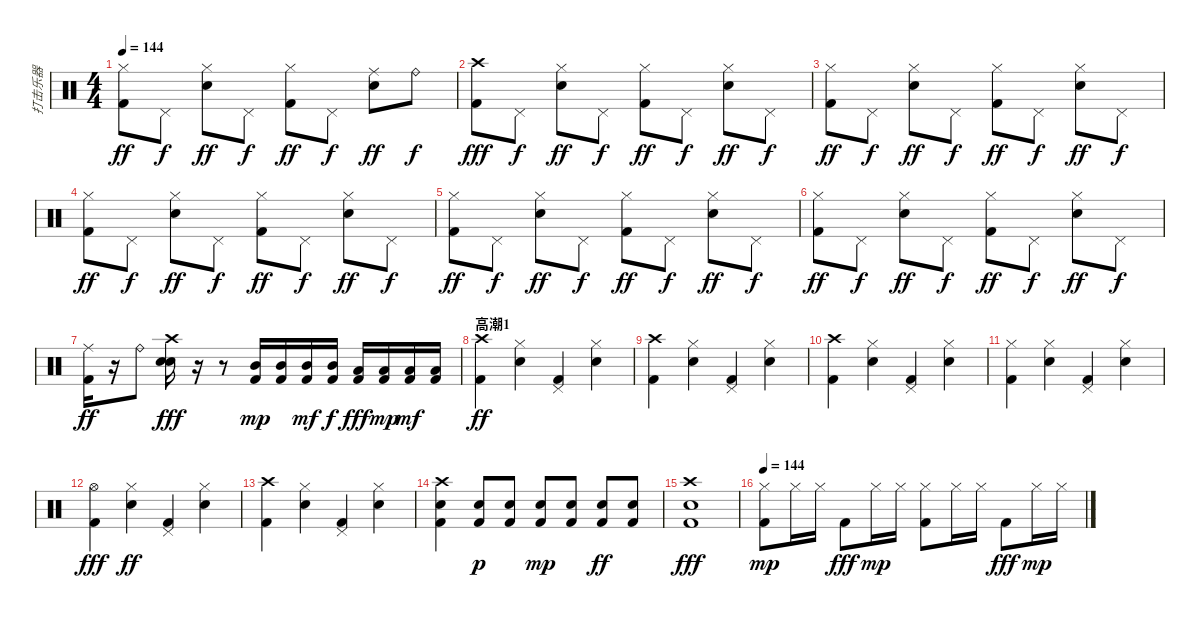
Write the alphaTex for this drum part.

\track ("打击乐器" "打击乐器") {instrument percussion}
\staff {score}
\articulation defaults
\ts (4 4)
\tempo 144
\clef neutral
\ks c
("Kick (hit) 2" "Hi-Hat (closed)").8{dy ff} "Pedal Hi-Hat (hit)".8{dy f} ("Snare (hit) 2" "Hi-Hat (closed)").8{dy ff} "Pedal Hi-Hat (hit)".8{dy f} ("Kick (hit) 2" "Hi-Hat (closed)").8{dy ff} "Pedal Hi-Hat (hit)".8{dy f} ("Snare (hit) 2" "Ride (middle)").8{dy ff} "Ride (bell)".8{dy f} |
("Kick (hit) 2" "Crash high (hit)").8{dy fff} "Pedal Hi-Hat (hit)".8{dy f} ("Snare (hit) 2" "Hi-Hat (closed)").8{dy ff} "Pedal Hi-Hat (hit)".8{dy f} ("Kick (hit) 2" "Hi-Hat (closed)").8{dy ff} "Pedal Hi-Hat (hit)".8{dy f} ("Snare (hit) 2" "Hi-Hat (closed)").8{dy ff} "Pedal Hi-Hat (hit)".8{dy f} |
("Kick (hit) 2" "Hi-Hat (closed)").8{dy ff} "Pedal Hi-Hat (hit)".8{dy f} ("Snare (hit) 2" "Hi-Hat (closed)").8{dy ff} "Pedal Hi-Hat (hit)".8{dy f} ("Kick (hit) 2" "Hi-Hat (closed)").8{dy ff} "Pedal Hi-Hat (hit)".8{dy f} ("Snare (hit) 2" "Hi-Hat (closed)").8{dy ff} "Pedal Hi-Hat (hit)".8{dy f} |
("Kick (hit) 2" "Hi-Hat (closed)").8{dy ff} "Pedal Hi-Hat (hit)".8{dy f} ("Snare (hit) 2" "Hi-Hat (closed)").8{dy ff} "Pedal Hi-Hat (hit)".8{dy f} ("Kick (hit) 2" "Hi-Hat (closed)").8{dy ff} "Pedal Hi-Hat (hit)".8{dy f} ("Snare (hit) 2" "Hi-Hat (closed)").8{dy ff} "Pedal Hi-Hat (hit)".8{dy f} |
("Kick (hit) 2" "Hi-Hat (closed)").8{dy ff} "Pedal Hi-Hat (hit)".8{dy f} ("Snare (hit) 2" "Hi-Hat (closed)").8{dy ff} "Pedal Hi-Hat (hit)".8{dy f} ("Kick (hit) 2" "Hi-Hat (closed)").8{dy ff} "Pedal Hi-Hat (hit)".8{dy f} ("Snare (hit) 2" "Hi-Hat (closed)").8{dy ff} "Pedal Hi-Hat (hit)".8{dy f} |
("Kick (hit) 2" "Hi-Hat (closed)").8{dy ff} "Pedal Hi-Hat (hit)".8{dy f} ("Snare (hit) 2" "Hi-Hat (closed)").8{dy ff} "Pedal Hi-Hat (hit)".8{dy f} ("Kick (hit) 2" "Hi-Hat (closed)").8{dy ff} "Pedal Hi-Hat (hit)".8{dy f} ("Snare (hit) 2" "Hi-Hat (closed)").8{dy ff} "Pedal Hi-Hat (hit)".8{dy f} |
("Kick (hit) 2" "Ride (middle)").16{dy ff} r.16 "Ride (bell)".8 ("Snare (hit) 2" "Snare (hit) 2" "Crash high (hit)").16{dy fff} r.16 r.8 ("Kick (hit) 2" "Mid Tom (hit)").16{dy mp} ("Kick (hit) 2" "Mid Tom (hit)").16 ("Kick (hit) 2" "Mid Tom (hit)").16{dy mf} ("Kick (hit) 2" "Mid Tom (hit)").16{dy f} ("Kick (hit) 2" "Low Tom (hit)").16{dy fff} ("Kick (hit) 2" "Low Tom (hit)").16{dy mp} ("Kick (hit) 2" "Low Tom (hit)").16{dy mf} ("Kick (hit) 2" "Low Tom (hit)").16 |
\section ("" "高潮1")
("Kick (hit) 2" "Crash high (hit)").4{dy ff} ("Snare (hit) 2" "Hi-Hat (closed)").4 ("Kick (hit) 2" "Pedal Hi-Hat (hit)").4 ("Snare (hit) 2" "Hi-Hat (closed)").4 |
("Kick (hit) 2" "Crash high (hit)").4 ("Snare (hit) 2" "Hi-Hat (closed)").4 ("Kick (hit) 2" "Pedal Hi-Hat (hit)").4 ("Snare (hit) 2" "Hi-Hat (closed)").4 |
("Kick (hit) 2" "Crash high (hit)").4 ("Snare (hit) 2" "Hi-Hat (closed)").4 ("Kick (hit) 2" "Pedal Hi-Hat (hit)").4 ("Snare (hit) 2" "Hi-Hat (closed)").4 |
("Kick (hit) 2" "Hi-Hat (closed)").4 ("Snare (hit) 2" "Hi-Hat (closed)").4 ("Kick (hit) 2" "Pedal Hi-Hat (hit)").4 ("Snare (hit) 2" "Hi-Hat (closed)").4 |
("Kick (hit) 2" "Hi-Hat (open)").4{dy fff} ("Snare (hit) 2" "Hi-Hat (closed)").4{dy ff} ("Kick (hit) 2" "Pedal Hi-Hat (hit)").4 ("Snare (hit) 2" "Hi-Hat (closed)").4 |
("Kick (hit) 2" "Crash high (hit)").4 ("Snare (hit) 2" "Hi-Hat (closed)").4 ("Kick (hit) 2" "Pedal Hi-Hat (hit)").4 ("Snare (hit) 2" "Hi-Hat (closed)").4 |
("Kick (hit) 2" "Snare (hit) 2" "Crash high (hit)").4 ("Kick (hit) 2" "Snare (hit) 2").8{dy p} ("Kick (hit) 2" "Snare (hit) 2").8 ("Kick (hit) 2" "Snare (hit) 2").8{dy mp} ("Kick (hit) 2" "Snare (hit) 2").8 ("Kick (hit) 2" "Snare (hit) 2").8{dy ff} ("Kick (hit) 2" "Snare (hit) 2").8 |
("Kick (hit) 2" "Snare (hit) 2" "Crash high (hit)").1{dy fff} |
\tempo 144
("Kick (hit) 2" "Hi-Hat (closed)").8{dy mp} "Hi-Hat (closed)".16 "Hi-Hat (closed)".16 "Kick (hit) 2".8{dy fff} "Hi-Hat (closed)".16{dy mp} "Hi-Hat (closed)".16 ("Kick (hit) 2" "Hi-Hat (closed)").8 "Hi-Hat (closed)".16 "Hi-Hat (closed)".16 "Kick (hit) 2".8{dy fff} "Hi-Hat (closed)".16{dy mp} "Hi-Hat (closed)".16
